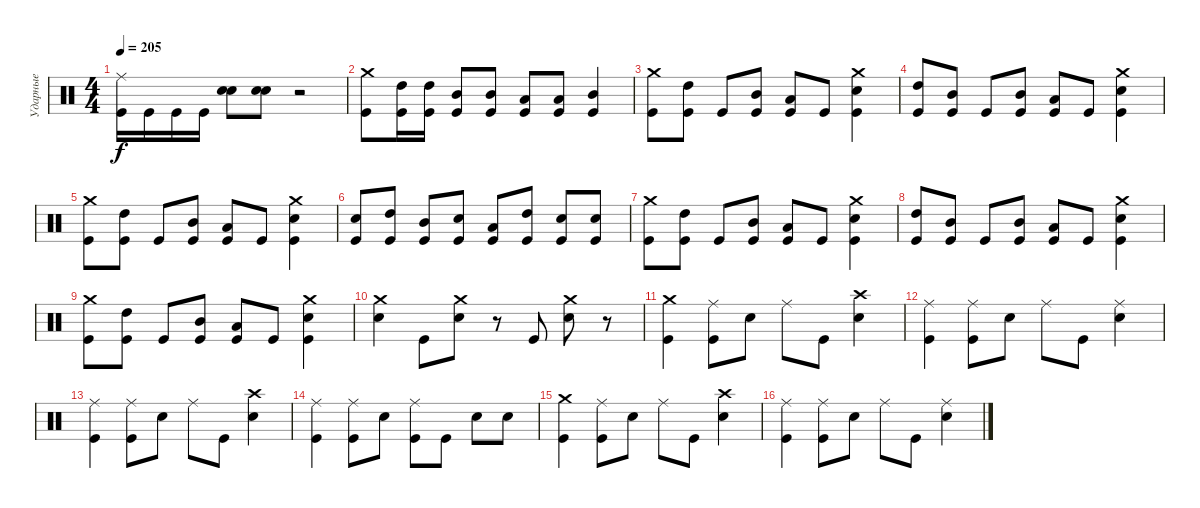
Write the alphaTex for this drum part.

\track ("Ударные" "Ударные") {instrument percussion}
\staff {score}
\articulation defaults
\ts (4 4)
\tempo 205
\clef neutral
\ks c
("Ride (middle)" "Kick (hit)").16{dy f} "Kick (hit)".16 "Kick (hit)".16 "Kick (hit)".16 ("Snare (hit) 2" "Snare (hit) 2").8{bu 60} ("Snare (hit) 2" "Snare (hit) 2").8{bu 60} r.2 |
("Crash medium (hit)" "Kick (hit)").8 ("High Tom (hit)" "Kick (hit)").16 ("High Tom (hit)" "Kick (hit)").16 ("Mid Tom (hit)" "Kick (hit)").8 ("Mid Tom (hit)" "Kick (hit)").8 ("Low Tom (hit)" "Kick (hit)").8 ("Low Tom (hit)" "Kick (hit)").8 ("Mid Tom (hit)" "Kick (hit)").4 |
("Crash medium (hit)" "Kick (hit)").8 ("High Tom (hit)" "Kick (hit)").8 "Kick (hit)".8 ("Mid Tom (hit)" "Kick (hit)").8 ("Low Tom (hit)" "Kick (hit)").8 "Kick (hit)".8 ("Crash medium (hit)" "Snare (hit) 2" "Kick (hit)").4 |
("High Tom (hit)" "Kick (hit)").8 ("Mid Tom (hit)" "Kick (hit)").8 "Kick (hit)".8 ("Mid Tom (hit)" "Kick (hit)").8 ("Low Tom (hit)" "Kick (hit)").8 "Kick (hit)".8 ("Crash medium (hit)" "Snare (hit) 2" "Kick (hit)").4 |
("Crash medium (hit)" "Kick (hit)").8 ("High Tom (hit)" "Kick (hit)").8 "Kick (hit)".8 ("Mid Tom (hit)" "Kick (hit)").8 ("Low Tom (hit)" "Kick (hit)").8 "Kick (hit)".8 ("Crash medium (hit)" "Snare (hit) 2" "Kick (hit)").4 |
("Snare (hit) 2" "Kick (hit)").8 ("High Tom (hit)" "Kick (hit)").8 ("Mid Tom (hit)" "Kick (hit)").8 ("Snare (hit) 2" "Kick (hit)").8 ("Low Tom (hit)" "Kick (hit)").8 ("High Tom (hit)" "Kick (hit)").8 ("Snare (hit) 2" "Kick (hit)").8 ("Snare (hit) 2" "Kick (hit)").8 |
("Crash medium (hit)" "Kick (hit)").8 ("High Tom (hit)" "Kick (hit)").8 "Kick (hit)".8 ("Mid Tom (hit)" "Kick (hit)").8 ("Low Tom (hit)" "Kick (hit)").8 "Kick (hit)".8 ("Crash medium (hit)" "Snare (hit) 2" "Kick (hit)").4 |
("High Tom (hit)" "Kick (hit)").8 ("Mid Tom (hit)" "Kick (hit)").8 "Kick (hit)".8 ("Mid Tom (hit)" "Kick (hit)").8 ("Low Tom (hit)" "Kick (hit)").8 "Kick (hit)".8 ("Crash medium (hit)" "Snare (hit) 2" "Kick (hit)").4 |
("Crash medium (hit)" "Kick (hit)").8 ("High Tom (hit)" "Kick (hit)").8 "Kick (hit)".8 ("Mid Tom (hit)" "Kick (hit)").8 ("Low Tom (hit)" "Kick (hit)").8 "Kick (hit)".8 ("Crash medium (hit)" "Snare (hit) 2" "Kick (hit)").4 |
("Crash medium (hit)" "Snare (hit) 2").4 "Kick (hit)".8 ("Crash medium (hit)" "Snare (hit) 2").8 r.8 "Kick (hit)".8 ("Crash medium (hit)" "Snare (hit) 2").8 r.8 |
("Crash medium (hit)" "Kick (hit)").4 ("Ride (middle)" "Kick (hit)").8 "Snare (hit) 2".8 "Ride (middle)".8 "Kick (hit)".8 ("Crash high (hit)" "Snare (hit) 2").4 |
("Ride (middle)" "Kick (hit)").4 ("Ride (middle)" "Kick (hit)").8 "Snare (hit) 2".8 "Ride (middle)".8 "Kick (hit)".8 ("Ride (middle)" "Snare (hit) 2").4 |
("Ride (middle)" "Kick (hit)").4 ("Ride (middle)" "Kick (hit)").8 "Snare (hit) 2".8 "Ride (middle)".8 "Kick (hit)".8 ("Crash high (hit)" "Snare (hit) 2").4 |
("Ride (middle)" "Kick (hit)").4 ("Ride (middle)" "Kick (hit)").8 "Snare (hit) 2".8 ("Ride (middle)" "Kick (hit)").8 "Kick (hit)".8 "Snare (hit) 2".8 "Snare (hit) 2".8 |
("Crash medium (hit)" "Kick (hit)").4 ("Ride (middle)" "Kick (hit)").8 "Snare (hit) 2".8 "Ride (middle)".8 "Kick (hit)".8 ("Crash high (hit)" "Snare (hit) 2").4 |
("Ride (middle)" "Kick (hit)").4 ("Ride (middle)" "Kick (hit)").8 "Snare (hit) 2".8 "Ride (middle)".8 "Kick (hit)".8 ("Ride (middle)" "Snare (hit) 2").4
